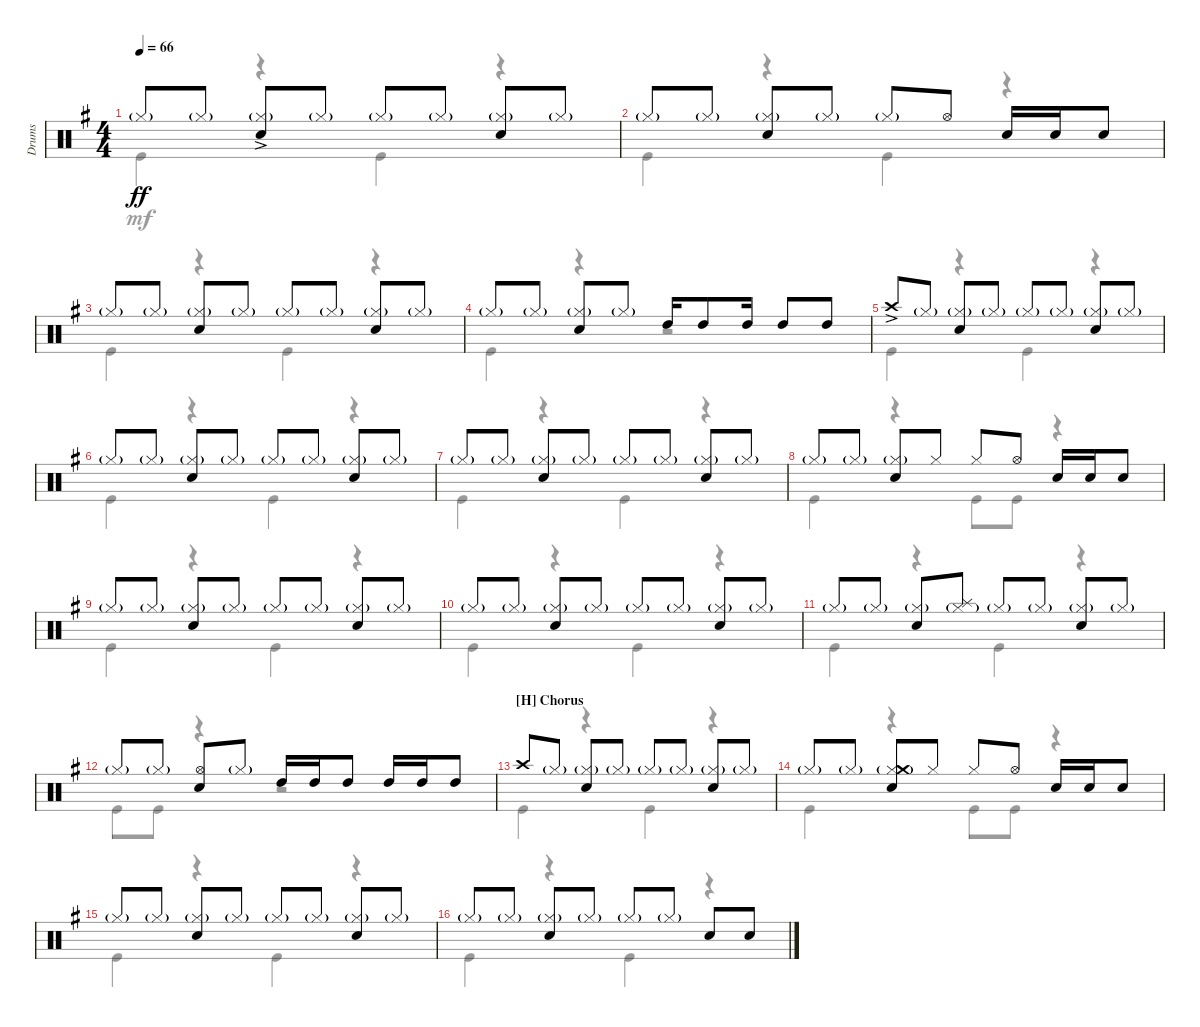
\defaultSystemsLayout 4
\bracketExtendMode groupsimilarinstruments
\otherSystemsTrackNameOrientation horizontal
\track ("Drumkit" "Drums") {instrument percussion}
\staff {score}
\articulation defaults
\voice
\ts (4 4)
\tempo 66
\clef neutral
\ks g "Hi-Hat (closed)"{g}.8{dy ff} "Hi-Hat (closed)"{g}.8
("Hi-Hat (closed)"{g} "Snare (hit) 2"{ac}).8 "Hi-Hat (closed)"{g}.8 "Hi-Hat (closed)"{g}.8 "Hi-Hat (closed)"{g}.8 ("Hi-Hat (closed)"{g} "Snare (hit) 2").8 "Hi-Hat (closed)"{g}.8 |
"Hi-Hat (closed)"{g}.8 "Hi-Hat (closed)"{g}.8 ("Hi-Hat (closed)"{g} "Snare (hit) 2").8 "Hi-Hat (closed)"{g}.8 "Hi-Hat (closed)"{g}.8 "Hi-Hat (open)".8 "Snare (hit) 2".16 "Snare (hit) 2".16 "Snare (hit) 2".8 |
"Hi-Hat (closed)"{g}.8 "Hi-Hat (closed)"{g}.8 ("Hi-Hat (closed)"{g} "Snare (hit) 2").8 "Hi-Hat (closed)"{g}.8 "Hi-Hat (closed)"{g}.8 "Hi-Hat (closed)"{g}.8 ("Hi-Hat (closed)"{g} "Snare (hit) 2").8 "Hi-Hat (closed)"{g}.8 |
"Hi-Hat (closed)"{g}.8 "Hi-Hat (closed)"{g}.8 ("Hi-Hat (closed)"{g} "Snare (hit) 2").8 "Hi-Hat (closed)"{g}.8 "High Tom (hit)".16 "High Tom (hit)".8 "High Tom (hit)".16 "High Tom (hit)".8 "High Tom (hit)".8 |
"Crash high (hit)"{ac}.8 "Hi-Hat (closed)"{g}.8 ("Hi-Hat (closed)"{g} "Snare (hit) 2").8 "Hi-Hat (closed)"{g}.8 "Hi-Hat (closed)"{g}.8 "Hi-Hat (closed)"{g}.8 ("Hi-Hat (closed)"{g} "Snare (hit) 2").8 "Hi-Hat (closed)"{g}.8 |
"Hi-Hat (closed)"{g}.8 "Hi-Hat (closed)"{g}.8 ("Hi-Hat (closed)"{g} "Snare (hit) 2").8 "Hi-Hat (closed)"{g}.8 "Hi-Hat (closed)"{g}.8 "Hi-Hat (closed)"{g}.8 ("Hi-Hat (closed)"{g} "Snare (hit) 2").8 "Hi-Hat (closed)"{g}.8 |
"Hi-Hat (closed)"{g}.8 "Hi-Hat (closed)"{g}.8 ("Hi-Hat (closed)"{g} "Snare (hit) 2").8 "Hi-Hat (closed)"{g}.8 "Hi-Hat (closed)"{g}.8 "Hi-Hat (closed)"{g}.8 ("Hi-Hat (closed)"{g} "Snare (hit) 2").8 "Hi-Hat (closed)"{g}.8 |
"Hi-Hat (closed)"{g}.8 "Hi-Hat (closed)"{g}.8 ("Hi-Hat (closed)"{g} "Snare (hit) 2").8 "Hi-Hat (closed)".8 "Hi-Hat (closed)".8 "Hi-Hat (open)".8 "Snare (hit) 2".16 "Snare (hit) 2".16 "Snare (hit) 2".8 |
"Hi-Hat (closed)"{g}.8 "Hi-Hat (closed)"{g}.8 ("Hi-Hat (closed)"{g} "Snare (hit) 2").8 "Hi-Hat (closed)"{g}.8 "Hi-Hat (closed)"{g}.8 "Hi-Hat (closed)"{g}.8 ("Hi-Hat (closed)"{g} "Snare (hit) 2").8 "Hi-Hat (closed)"{g}.8 |
"Hi-Hat (closed)"{g}.8 "Hi-Hat (closed)"{g}.8 ("Hi-Hat (closed)"{g} "Snare (hit) 2").8 "Hi-Hat (closed)"{g}.8 "Hi-Hat (closed)"{g}.8 "Hi-Hat (closed)"{g}.8 ("Hi-Hat (closed)"{g} "Snare (hit) 2").8 "Hi-Hat (closed)"{g}.8 |
"Hi-Hat (closed)"{g}.8 "Hi-Hat (closed)"{g}.8 ("Hi-Hat (closed)"{g} "Snare (hit) 2").8 ("Hi-Hat (closed)"{g} "Splash (hit)").8 "Hi-Hat (closed)"{g}.8 "Hi-Hat (closed)"{g}.8 ("Hi-Hat (closed)"{g} "Snare (hit) 2").8 "Hi-Hat (closed)"{g}.8 |
"Hi-Hat (closed)"{g}.8 "Hi-Hat (closed)"{g}.8 ("Hi-Hat (open)" "Snare (hit) 2").8 "Hi-Hat (closed)"{g}.8 "High Tom (hit)".16 "High Tom (hit)".16 "High Tom (hit)".8 "High Tom (hit)".16 "High Tom (hit)".16 "High Tom (hit)".8 |
\section ("H" "Chorus")
"Crash high (hit)".8 "Hi-Hat (closed)"{g}.8 ("Hi-Hat (closed)"{g} "Snare (hit) 2").8 "Hi-Hat (closed)"{g}.8 "Hi-Hat (closed)"{g}.8 "Hi-Hat (closed)"{g}.8 ("Hi-Hat (closed)"{g} "Snare (hit) 2").8 "Hi-Hat (closed)"{g}.8 |
"Hi-Hat (closed)"{g}.8 "Hi-Hat (closed)"{g}.8 ("Hi-Hat (closed)"{g} "Snare (hit) 2" "Crash medium (hit)").8 "Hi-Hat (closed)".8 "Hi-Hat (closed)".8 "Hi-Hat (open)".8 "Snare (hit) 2".16 "Snare (hit) 2".16 "Snare (hit) 2".8 |
"Hi-Hat (closed)"{g}.8 "Hi-Hat (closed)"{g}.8 ("Hi-Hat (closed)"{g} "Snare (hit) 2").8 "Hi-Hat (closed)"{g}.8 "Hi-Hat (closed)"{g}.8 "Hi-Hat (closed)"{g}.8 ("Hi-Hat (closed)"{g} "Snare (hit) 2").8 "Hi-Hat (closed)"{g}.8 |
"Hi-Hat (closed)"{g}.8 "Hi-Hat (closed)"{g}.8 ("Hi-Hat (closed)"{g} "Snare (hit) 2").8 "Hi-Hat (closed)"{g}.8 "Hi-Hat (closed)"{g}.8 "Hi-Hat (closed)"{g}.8 "Snare (hit) 2".8 "Snare (hit) 2".8
\voice
\clef neutral
\ottava regular
\simile none
\ks g "Kick (hit)".4{dy mf}
r.4 "Kick (hit)".4 r.4 |
"Kick (hit)".4 r.4 "Kick (hit)".4 r.4 |
"Kick (hit)".4 r.4 "Kick (hit)".4 r.4 |
"Kick (hit)".4 r.4 r.2 |
"Kick (hit)".4 r.4 "Kick (hit)".4 r.4 |
"Kick (hit)".4 r.4 "Kick (hit)".4 r.4 |
"Kick (hit)".4 r.4 "Kick (hit)".4 r.4 |
"Kick (hit)".4 r.4 "Kick (hit)".8 "Kick (hit)".8 r.4 |
"Kick (hit)".4 r.4 "Kick (hit)".4 r.4 |
"Kick (hit)".4 r.4 "Kick (hit)".4 r.4 |
"Kick (hit)".4 r.4 "Kick (hit)".4 r.4 |
"Kick (hit)".8 "Kick (hit)".8 r.4 r.2 |
"Kick (hit)".4 r.4 "Kick (hit)".4 r.4 |
"Kick (hit)".4 r.4 "Kick (hit)".8 "Kick (hit)".8 r.4 |
"Kick (hit)".4 r.4 "Kick (hit)".4 r.4 |
"Kick (hit)".4 r.4 "Kick (hit)".4 r.4
